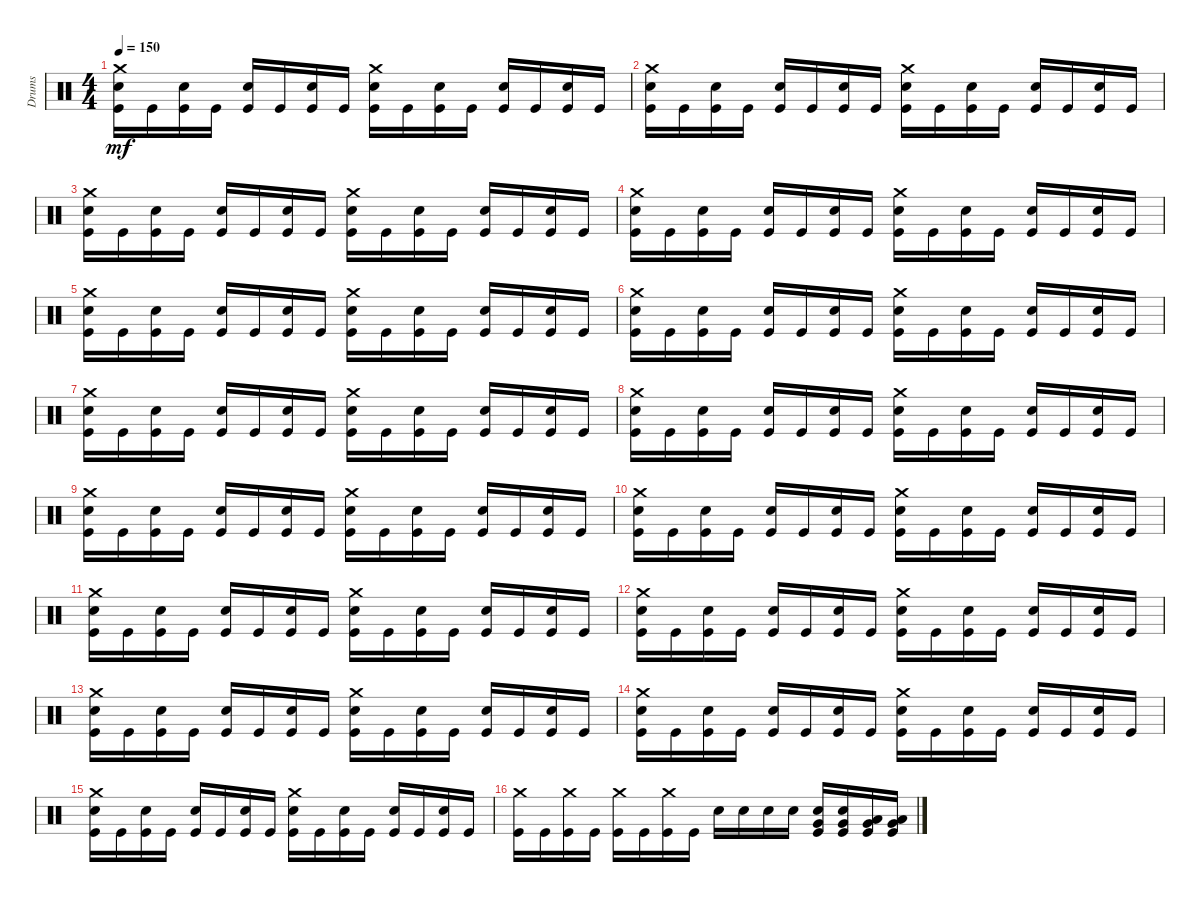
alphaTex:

\track ("Drums" "Drums") {instrument percussion}
\staff {score}
\articulation defaults
\ts (4 4)
\tempo 150
\clef neutral
\ks c
("Kick (hit)" "Snare (hit) 2" "Crash medium (hit)").16{dy mf} "Kick (hit)".16 ("Kick (hit)" "Snare (hit) 2").16 "Kick (hit)".16 ("Kick (hit)" "Snare (hit) 2").16 "Kick (hit)".16 ("Kick (hit)" "Snare (hit) 2").16 "Kick (hit)".16 ("Kick (hit)" "Snare (hit) 2" "Crash medium (hit)").16 "Kick (hit)".16 ("Kick (hit)" "Snare (hit) 2").16 "Kick (hit)".16 ("Kick (hit)" "Snare (hit) 2").16 "Kick (hit)".16 ("Kick (hit)" "Snare (hit) 2").16 "Kick (hit)".16 |
("Kick (hit)" "Snare (hit) 2" "Crash medium (hit)").16 "Kick (hit)".16 ("Kick (hit)" "Snare (hit) 2").16 "Kick (hit)".16 ("Kick (hit)" "Snare (hit) 2").16 "Kick (hit)".16 ("Kick (hit)" "Snare (hit) 2").16 "Kick (hit)".16 ("Kick (hit)" "Snare (hit) 2" "Crash medium (hit)").16 "Kick (hit)".16 ("Kick (hit)" "Snare (hit) 2").16 "Kick (hit)".16 ("Kick (hit)" "Snare (hit) 2").16 "Kick (hit)".16 ("Kick (hit)" "Snare (hit) 2").16 "Kick (hit)".16 |
("Kick (hit)" "Snare (hit) 2" "Crash medium (hit)").16 "Kick (hit)".16 ("Kick (hit)" "Snare (hit) 2").16 "Kick (hit)".16 ("Kick (hit)" "Snare (hit) 2").16 "Kick (hit)".16 ("Kick (hit)" "Snare (hit) 2").16 "Kick (hit)".16 ("Kick (hit)" "Snare (hit) 2" "Crash medium (hit)").16 "Kick (hit)".16 ("Kick (hit)" "Snare (hit) 2").16 "Kick (hit)".16 ("Kick (hit)" "Snare (hit) 2").16 "Kick (hit)".16 ("Kick (hit)" "Snare (hit) 2").16 "Kick (hit)".16 |
("Kick (hit)" "Snare (hit) 2" "Crash medium (hit)").16 "Kick (hit)".16 ("Kick (hit)" "Snare (hit) 2").16 "Kick (hit)".16 ("Kick (hit)" "Snare (hit) 2").16 "Kick (hit)".16 ("Kick (hit)" "Snare (hit) 2").16 "Kick (hit)".16 ("Kick (hit)" "Snare (hit) 2" "Crash medium (hit)").16 "Kick (hit)".16 ("Kick (hit)" "Snare (hit) 2").16 "Kick (hit)".16 ("Kick (hit)" "Snare (hit) 2").16 "Kick (hit)".16 ("Kick (hit)" "Snare (hit) 2").16 "Kick (hit)".16 |
("Kick (hit)" "Snare (hit) 2" "Crash medium (hit)").16 "Kick (hit)".16 ("Kick (hit)" "Snare (hit) 2").16 "Kick (hit)".16 ("Kick (hit)" "Snare (hit) 2").16 "Kick (hit)".16 ("Kick (hit)" "Snare (hit) 2").16 "Kick (hit)".16 ("Kick (hit)" "Snare (hit) 2" "Crash medium (hit)").16 "Kick (hit)".16 ("Kick (hit)" "Snare (hit) 2").16 "Kick (hit)".16 ("Kick (hit)" "Snare (hit) 2").16 "Kick (hit)".16 ("Kick (hit)" "Snare (hit) 2").16 "Kick (hit)".16 |
("Kick (hit)" "Snare (hit) 2" "Crash medium (hit)").16 "Kick (hit)".16 ("Kick (hit)" "Snare (hit) 2").16 "Kick (hit)".16 ("Kick (hit)" "Snare (hit) 2").16 "Kick (hit)".16 ("Kick (hit)" "Snare (hit) 2").16 "Kick (hit)".16 ("Kick (hit)" "Snare (hit) 2" "Crash medium (hit)").16 "Kick (hit)".16 ("Kick (hit)" "Snare (hit) 2").16 "Kick (hit)".16 ("Kick (hit)" "Snare (hit) 2").16 "Kick (hit)".16 ("Kick (hit)" "Snare (hit) 2").16 "Kick (hit)".16 |
("Kick (hit)" "Snare (hit) 2" "Crash medium (hit)").16 "Kick (hit)".16 ("Kick (hit)" "Snare (hit) 2").16 "Kick (hit)".16 ("Kick (hit)" "Snare (hit) 2").16 "Kick (hit)".16 ("Kick (hit)" "Snare (hit) 2").16 "Kick (hit)".16 ("Kick (hit)" "Snare (hit) 2" "Crash medium (hit)").16 "Kick (hit)".16 ("Kick (hit)" "Snare (hit) 2").16 "Kick (hit)".16 ("Kick (hit)" "Snare (hit) 2").16 "Kick (hit)".16 ("Kick (hit)" "Snare (hit) 2").16 "Kick (hit)".16 |
("Kick (hit)" "Snare (hit) 2" "Crash medium (hit)").16 "Kick (hit)".16 ("Kick (hit)" "Snare (hit) 2").16 "Kick (hit)".16 ("Kick (hit)" "Snare (hit) 2").16 "Kick (hit)".16 ("Kick (hit)" "Snare (hit) 2").16 "Kick (hit)".16 ("Kick (hit)" "Snare (hit) 2" "Crash medium (hit)").16 "Kick (hit)".16 ("Kick (hit)" "Snare (hit) 2").16 "Kick (hit)".16 ("Kick (hit)" "Snare (hit) 2").16 "Kick (hit)".16 ("Kick (hit)" "Snare (hit) 2").16 "Kick (hit)".16 |
("Kick (hit)" "Snare (hit) 2" "Crash medium (hit)").16 "Kick (hit)".16 ("Kick (hit)" "Snare (hit) 2").16 "Kick (hit)".16 ("Kick (hit)" "Snare (hit) 2").16 "Kick (hit)".16 ("Kick (hit)" "Snare (hit) 2").16 "Kick (hit)".16 ("Kick (hit)" "Snare (hit) 2" "Crash medium (hit)").16 "Kick (hit)".16 ("Kick (hit)" "Snare (hit) 2").16 "Kick (hit)".16 ("Kick (hit)" "Snare (hit) 2").16 "Kick (hit)".16 ("Kick (hit)" "Snare (hit) 2").16 "Kick (hit)".16 |
("Kick (hit)" "Snare (hit) 2" "Crash medium (hit)").16 "Kick (hit)".16 ("Kick (hit)" "Snare (hit) 2").16 "Kick (hit)".16 ("Kick (hit)" "Snare (hit) 2").16 "Kick (hit)".16 ("Kick (hit)" "Snare (hit) 2").16 "Kick (hit)".16 ("Kick (hit)" "Snare (hit) 2" "Crash medium (hit)").16 "Kick (hit)".16 ("Kick (hit)" "Snare (hit) 2").16 "Kick (hit)".16 ("Kick (hit)" "Snare (hit) 2").16 "Kick (hit)".16 ("Kick (hit)" "Snare (hit) 2").16 "Kick (hit)".16 |
("Kick (hit)" "Snare (hit) 2" "Crash medium (hit)").16 "Kick (hit)".16 ("Kick (hit)" "Snare (hit) 2").16 "Kick (hit)".16 ("Kick (hit)" "Snare (hit) 2").16 "Kick (hit)".16 ("Kick (hit)" "Snare (hit) 2").16 "Kick (hit)".16 ("Kick (hit)" "Snare (hit) 2" "Crash medium (hit)").16 "Kick (hit)".16 ("Kick (hit)" "Snare (hit) 2").16 "Kick (hit)".16 ("Kick (hit)" "Snare (hit) 2").16 "Kick (hit)".16 ("Kick (hit)" "Snare (hit) 2").16 "Kick (hit)".16 |
("Kick (hit)" "Snare (hit) 2" "Crash medium (hit)").16 "Kick (hit)".16 ("Kick (hit)" "Snare (hit) 2").16 "Kick (hit)".16 ("Kick (hit)" "Snare (hit) 2").16 "Kick (hit)".16 ("Kick (hit)" "Snare (hit) 2").16 "Kick (hit)".16 ("Kick (hit)" "Snare (hit) 2" "Crash medium (hit)").16 "Kick (hit)".16 ("Kick (hit)" "Snare (hit) 2").16 "Kick (hit)".16 ("Kick (hit)" "Snare (hit) 2").16 "Kick (hit)".16 ("Kick (hit)" "Snare (hit) 2").16 "Kick (hit)".16 |
("Kick (hit)" "Snare (hit) 2" "Crash medium (hit)").16 "Kick (hit)".16 ("Kick (hit)" "Snare (hit) 2").16 "Kick (hit)".16 ("Kick (hit)" "Snare (hit) 2").16 "Kick (hit)".16 ("Kick (hit)" "Snare (hit) 2").16 "Kick (hit)".16 ("Kick (hit)" "Snare (hit) 2" "Crash medium (hit)").16 "Kick (hit)".16 ("Kick (hit)" "Snare (hit) 2").16 "Kick (hit)".16 ("Kick (hit)" "Snare (hit) 2").16 "Kick (hit)".16 ("Kick (hit)" "Snare (hit) 2").16 "Kick (hit)".16 |
("Kick (hit)" "Snare (hit) 2" "Crash medium (hit)").16 "Kick (hit)".16 ("Kick (hit)" "Snare (hit) 2").16 "Kick (hit)".16 ("Kick (hit)" "Snare (hit) 2").16 "Kick (hit)".16 ("Kick (hit)" "Snare (hit) 2").16 "Kick (hit)".16 ("Kick (hit)" "Snare (hit) 2" "Crash medium (hit)").16 "Kick (hit)".16 ("Kick (hit)" "Snare (hit) 2").16 "Kick (hit)".16 ("Kick (hit)" "Snare (hit) 2").16 "Kick (hit)".16 ("Kick (hit)" "Snare (hit) 2").16 "Kick (hit)".16 |
("Kick (hit)" "Snare (hit) 2" "Crash medium (hit)").16 "Kick (hit)".16 ("Kick (hit)" "Snare (hit) 2").16 "Kick (hit)".16 ("Kick (hit)" "Snare (hit) 2").16 "Kick (hit)".16 ("Kick (hit)" "Snare (hit) 2").16 "Kick (hit)".16 ("Kick (hit)" "Snare (hit) 2" "Crash medium (hit)").16 "Kick (hit)".16 ("Kick (hit)" "Snare (hit) 2").16 "Kick (hit)".16 ("Kick (hit)" "Snare (hit) 2").16 "Kick (hit)".16 ("Kick (hit)" "Snare (hit) 2").16 "Kick (hit)".16 |
("Kick (hit)" "Crash medium (hit)").16 "Kick (hit)".16 ("Kick (hit)" "Crash medium (hit)").16 "Kick (hit)".16 ("Kick (hit)" "Crash medium (hit)").16 "Kick (hit)".16 ("Kick (hit)" "Crash medium (hit)").16 "Kick (hit)".16 "Snare (hit) 2".16 "Snare (hit) 2".16 "Snare (hit) 2".16 "Snare (hit) 2".16 ("Kick (hit)" "Very Low Tom (hit)" "Snare (hit) 2").16 ("Kick (hit)" "Very Low Tom (hit)" "Snare (hit) 2").16 ("Kick (hit)" "Very Low Tom (hit)" "Low Tom (hit)").16 ("Kick (hit)" "Very Low Tom (hit)" "Low Tom (hit)").16
